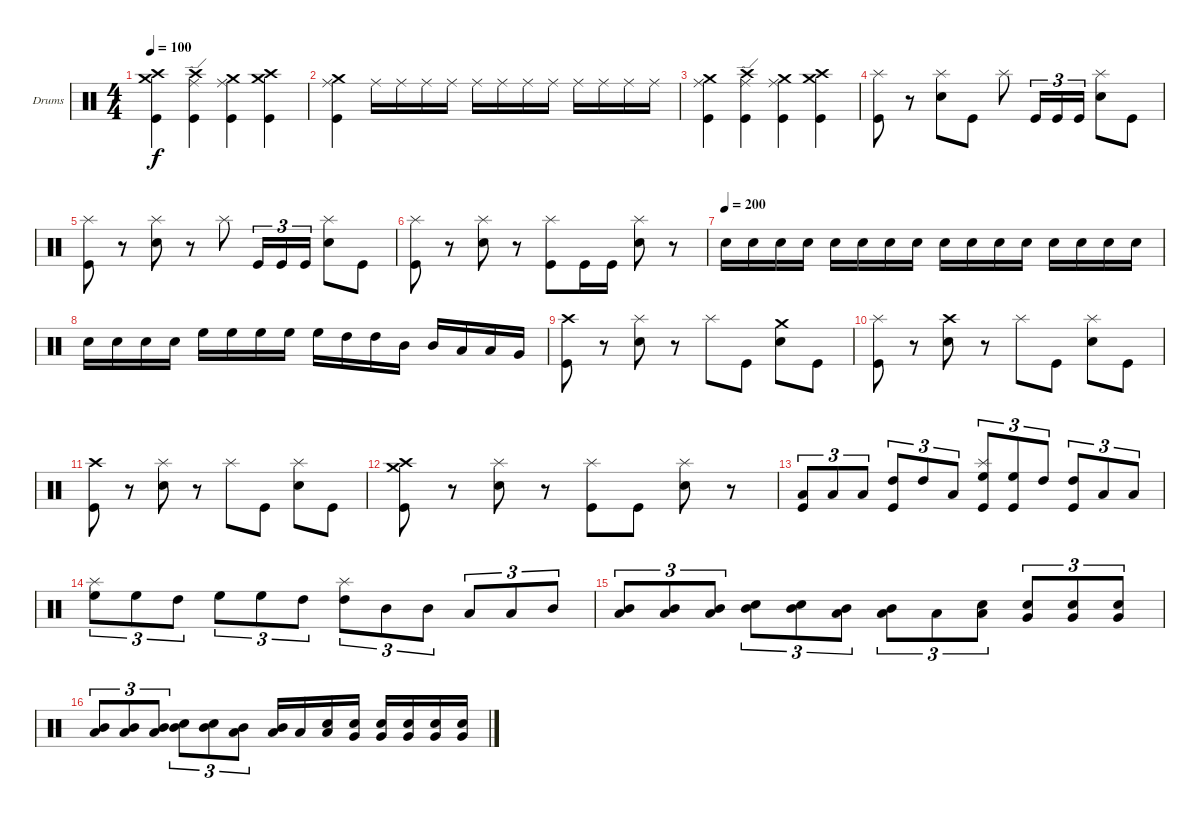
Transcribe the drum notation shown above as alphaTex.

\bracketExtendMode groupsimilarinstruments
\firstSystemTrackNameOrientation horizontal
\otherSystemsTrackNameOrientation horizontal
\track ("Drumkit" "Drums") {instrument percussion}
\staff {score}
\articulation defaults
\ts (4 4)
\tempo 100
\clef neutral
\ks c
("Crash high (hit)" "Crash medium (hit)" "Kick (hit)").4{dy f} ("Crash high (hit)" "Ride (edge)" "Kick (hit)").4 ("Ride (middle)" "Crash medium (hit)" "Kick (hit)").4 ("Crash high (hit)" "Crash medium (hit)" "Kick (hit)").4 |
("Ride (middle)" "Crash medium (hit)" "Kick (hit)").4 "Ride (middle)".16 "Ride (middle)".16 "Ride (middle)".16 "Ride (middle)".16 "Ride (middle)".16 "Ride (middle)".16 "Ride (middle)".16 "Ride (middle)".16 "Ride (middle)".16 "Ride (middle)".16 "Ride (middle)".16 "Ride (middle)".16 |
("Ride (middle)" "Crash medium (hit)" "Kick (hit)").4 ("Crash high (hit)" "Ride (edge)" "Kick (hit)").4 ("Ride (middle)" "Crash medium (hit)" "Kick (hit)").4 ("Crash high (hit)" "Crash medium (hit)" "Kick (hit)").4 |
("Splash (hit)" "Kick (hit)").8 r.8 ("Splash (hit)" "Snare (hit) 2").8 "Kick (hit)".8 "Splash (hit)".8 "Kick (hit)".16{tu (3 2)} "Kick (hit)".16{tu (3 2)} "Kick (hit)".16{tu (3 2)} ("Splash (hit)" "Snare (hit) 2").8 "Kick (hit)".8 |
("Splash (hit)" "Kick (hit)").8 r.8 ("Splash (hit)" "Snare (hit) 2").8 r.8 "Splash (hit)".8 "Kick (hit)".16{tu (3 2)} "Kick (hit)".16{tu (3 2)} "Kick (hit)".16{tu (3 2)} ("Splash (hit)" "Snare (hit) 2").8 "Kick (hit)".8 |
("Splash (hit)" "Kick (hit)").8 r.8 ("Splash (hit)" "Snare (hit) 2").8 r.8 ("Splash (hit)" "Kick (hit)").8 "Kick (hit)".16 "Kick (hit)".16 ("Splash (hit)" "Snare (hit) 2").8 r.8 |
\tempo (200)
"Snare (hit) 2".16 "Snare (hit) 2".16 "Snare (hit) 2".16 "Snare (hit) 2".16 "Snare (hit) 2".16 "Snare (hit) 2".16 "Snare (hit) 2".16 "Snare (hit) 2".16 "Snare (hit) 2".16 "Snare (hit) 2".16 "Snare (hit) 2".16 "Snare (hit) 2".16 "Snare (hit) 2".16 "Snare (hit) 2".16 "Snare (hit) 2".16 "Snare (hit) 2".16 |
"Snare (hit) 2".16 "Snare (hit) 2".16 "Snare (hit) 2".16 "Snare (hit) 2".16 "High Floor Tom (hit)".16 "High Floor Tom (hit)".16 "High Floor Tom (hit)".16 "High Floor Tom (hit)".16 "High Floor Tom (hit)".16 "High Tom (hit)".16 "High Tom (hit)".16 "Mid Tom (hit)".16 "Mid Tom (hit)".16 "Low Tom (hit)".16 "Low Tom (hit)".16 "Very Low Tom (hit)".16 |
("Crash high (hit)" "Kick (hit)").8 r.8 ("Splash (hit)" "Snare (hit) 2").8 r.8 "Splash (hit)".8 "Kick (hit)".8 ("Crash medium (hit)" "Snare (hit) 2").8 "Kick (hit)".8 |
("Splash (hit)" "Kick (hit)").8 r.8 ("Crash high (hit)" "Snare (hit) 2").8 r.8 "Splash (hit)".8 "Kick (hit)".8 ("Splash (hit)" "Snare (hit) 2").8 "Kick (hit)".8 |
("Crash high (hit)" "Kick (hit)").8 r.8 ("Splash (hit)" "Snare (hit) 2").8 r.8 "Splash (hit)".8 "Kick (hit)".8 ("Splash (hit)" "Snare (hit) 2").8 "Kick (hit)".8 |
("Crash medium (hit)" "Crash high (hit)" "Kick (hit)").8 r.8 ("Splash (hit)" "Snare (hit) 2").8 r.8 ("Splash (hit)" "Kick (hit)").8 "Kick (hit)".8 ("Splash (hit)" "Snare (hit) 2").8 r.8 |
("Low Tom (hit)" "Kick (hit)").8{tu (3 2)} "Low Tom (hit)".8{tu (3 2)} "Low Tom (hit)".8{tu (3 2)} ("High Tom (hit)" "Kick (hit)").8{tu (3 2)} "High Tom (hit)".8{tu (3 2)} "Low Tom (hit)".8{tu (3 2)} ("High Floor Tom (hit)" "Splash (hit)" "Kick (hit)").8{tu (3 2)} ("High Floor Tom (hit)" "Kick (hit)").8{tu (3 2)} "High Tom (hit)".8{tu (3 2)} ("High Tom (hit)" "Kick (hit)").8{tu (3 2)} "Low Tom (hit)".8{tu (3 2)} "Low Tom (hit)".8{tu (3 2)} |
("Splash (hit)" "High Floor Tom (hit)").8{tu (3 2)} "High Floor Tom (hit)".8{tu (3 2)} "High Tom (hit)".8{tu (3 2)} "High Floor Tom (hit)".8{tu (3 2)} "High Floor Tom (hit)".8{tu (3 2)} "High Tom (hit)".8{tu (3 2)} ("High Tom (hit)" "Splash (hit)").8{tu (3 2)} "Mid Tom (hit)".8{tu (3 2)} "Mid Tom (hit)".8{tu (3 2)} "Low Tom (hit)".8{tu (3 2)} "Low Tom (hit)".8{tu (3 2)} "Mid Tom (hit)".8{tu (3 2)} |
("Mid Tom (hit)" "Low Tom (hit)").8{tu (3 2)} ("Mid Tom (hit)" "Low Tom (hit)").8{tu (3 2)} ("Mid Tom (hit)" "Low Tom (hit)").8{tu (3 2)} ("Mid Tom (hit)" "Snare (hit) 2").8{tu (3 2)} ("Mid Tom (hit)" "Snare (hit) 2").8{tu (3 2)} ("Mid Tom (hit)" "Low Tom (hit)").8{tu (3 2)} ("Mid Tom (hit)" "Low Tom (hit)").8{tu (3 2)} "Low Tom (hit)".8{tu (3 2)} ("Low Tom (hit)" "Snare (hit) 2").8{tu (3 2)} ("Very Low Tom (hit)" "Snare (hit) 2").8{tu (3 2)} ("Very Low Tom (hit)" "Snare (hit) 2").8{tu (3 2)} ("Very Low Tom (hit)" "Snare (hit) 2").8{tu (3 2)} |
("Mid Tom (hit)" "Low Tom (hit)").8{tu (3 2)} ("Mid Tom (hit)" "Low Tom (hit)").8{tu (3 2)} ("Mid Tom (hit)" "Low Tom (hit)").8{tu (3 2)} ("Mid Tom (hit)" "Snare (hit) 2").8{tu (3 2)} ("Mid Tom (hit)" "Snare (hit) 2").8{tu (3 2)} ("Mid Tom (hit)" "Low Tom (hit)").8{tu (3 2)} ("Mid Tom (hit)" "Low Tom (hit)").16 "Low Tom (hit)".16 ("Low Tom (hit)" "Snare (hit) 2").16 ("Very Low Tom (hit)" "Snare (hit) 2").16 ("Very Low Tom (hit)" "Snare (hit) 2").16 ("Very Low Tom (hit)" "Snare (hit) 2").16 ("Very Low Tom (hit)" "Snare (hit) 2").16 ("Very Low Tom (hit)" "Snare (hit) 2").16
